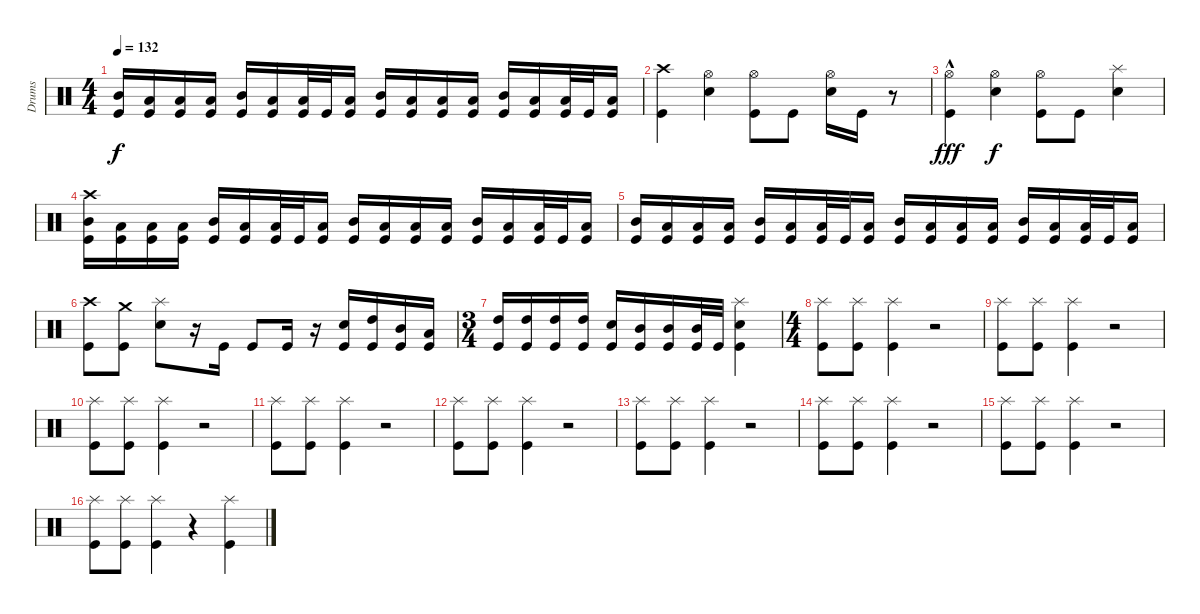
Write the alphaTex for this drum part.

\track ("Drums" "Drums") {instrument percussion}
\staff {score}
\articulation defaults
\ts (4 4)
\tempo 132
\clef neutral
\ks c
("Mid Tom (hit)" "Kick (hit)").16{dy f} ("Low Tom (hit)" "Kick (hit)").16 ("Low Tom (hit)" "Kick (hit)").16 ("Low Tom (hit)" "Kick (hit)").16 ("Mid Tom (hit)" "Kick (hit)").16 ("Low Tom (hit)" "Kick (hit)").16 ("Low Tom (hit)" "Kick (hit)").32 "Kick (hit)".32 ("Low Tom (hit)" "Kick (hit)").16 ("Mid Tom (hit)" "Kick (hit)").16 ("Low Tom (hit)" "Kick (hit)").16 ("Low Tom (hit)" "Kick (hit)").16 ("Low Tom (hit)" "Kick (hit)").16 ("Mid Tom (hit)" "Kick (hit)").16 ("Low Tom (hit)" "Kick (hit)").16 ("Low Tom (hit)" "Kick (hit)").32 "Kick (hit)".32 ("Low Tom (hit)" "Kick (hit)").16 |
("Crash high (hit)" "Kick (hit)").4 ("Hi-Hat (open)" "Snare (hit) 2").4 ("Hi-Hat (open)" "Kick (hit)").8 "Kick (hit)".8 ("Hi-Hat (open)" "Snare (hit) 2").16 "Kick (hit)".16 r.8 |
("Hi-Hat (open)"{hac} "Kick (hit)").4{dy fff} ("Hi-Hat (open)" "Snare (hit) 2").4{dy f} ("Hi-Hat (open)" "Kick (hit)").8 "Kick (hit)".8 ("Splash (hit)" "Snare (hit) 2").4 |
("Crash high (hit)" "Mid Tom (hit)" "Kick (hit)").16 ("Low Tom (hit)" "Kick (hit)").16 ("Low Tom (hit)" "Kick (hit)").16 ("Low Tom (hit)" "Kick (hit)").16 ("Mid Tom (hit)" "Kick (hit)").16 ("Low Tom (hit)" "Kick (hit)").16 ("Low Tom (hit)" "Kick (hit)").32 "Kick (hit)".32 ("Low Tom (hit)" "Kick (hit)").16 ("Mid Tom (hit)" "Kick (hit)").16 ("Low Tom (hit)" "Kick (hit)").16 ("Low Tom (hit)" "Kick (hit)").16 ("Low Tom (hit)" "Kick (hit)").16 ("Mid Tom (hit)" "Kick (hit)").16 ("Low Tom (hit)" "Kick (hit)").16 ("Low Tom (hit)" "Kick (hit)").32 "Kick (hit)".32 ("Low Tom (hit)" "Kick (hit)").16 |
("Mid Tom (hit)" "Kick (hit)").16 ("Low Tom (hit)" "Kick (hit)").16 ("Low Tom (hit)" "Kick (hit)").16 ("Low Tom (hit)" "Kick (hit)").16 ("Mid Tom (hit)" "Kick (hit)").16 ("Low Tom (hit)" "Kick (hit)").16 ("Low Tom (hit)" "Kick (hit)").32 "Kick (hit)".32 ("Low Tom (hit)" "Kick (hit)").16 ("Mid Tom (hit)" "Kick (hit)").16 ("Low Tom (hit)" "Kick (hit)").16 ("Low Tom (hit)" "Kick (hit)").16 ("Low Tom (hit)" "Kick (hit)").16 ("Mid Tom (hit)" "Kick (hit)").16 ("Low Tom (hit)" "Kick (hit)").16 ("Low Tom (hit)" "Kick (hit)").32 "Kick (hit)".32 ("Low Tom (hit)" "Kick (hit)").16 |
("Crash high (hit)" "Kick (hit)").8 ("Crash medium (hit)" "Kick (hit)").8 ("Splash (hit)" "Snare (hit) 2").8 r.16 "Kick (hit)".16 "Kick (hit)".8 "Kick (hit)".16 r.16 ("Snare (hit) 2" "Kick (hit)").16 ("High Tom (hit)" "Kick (hit)").16 ("Mid Tom (hit)" "Kick (hit)").16 ("Low Tom (hit)" "Kick (hit)").16 |
\ts (3 4)
("High Tom (hit)" "Kick (hit)").16 ("High Tom (hit)" "Kick (hit)").16 ("High Tom (hit)" "Kick (hit)").16 ("High Tom (hit)" "Kick (hit)").16 ("Snare (hit) 2" "Kick (hit)").16 ("Mid Tom (hit)" "Kick (hit)").16 ("Mid Tom (hit)" "Kick (hit)").16 ("Mid Tom (hit)" "Kick (hit)").32 "Kick (hit)".32 ("Splash (hit)" "Snare (hit) 2" "Kick (hit)").4 |
\ts (4 4)
("Splash (hit)" "Kick (hit)").8 ("Splash (hit)" "Kick (hit)").8 ("Splash (hit)" "Kick (hit)").4 r.2 |
("Splash (hit)" "Kick (hit)").8 ("Splash (hit)" "Kick (hit)").8 ("Splash (hit)" "Kick (hit)").4 r.2 |
("Splash (hit)" "Kick (hit)").8 ("Splash (hit)" "Kick (hit)").8 ("Splash (hit)" "Kick (hit)").4 r.2 |
("Splash (hit)" "Kick (hit)").8 ("Splash (hit)" "Kick (hit)").8 ("Splash (hit)" "Kick (hit)").4 r.2 |
("Splash (hit)" "Kick (hit)").8 ("Splash (hit)" "Kick (hit)").8 ("Splash (hit)" "Kick (hit)").4 r.2 |
("Splash (hit)" "Kick (hit)").8 ("Splash (hit)" "Kick (hit)").8 ("Splash (hit)" "Kick (hit)").4 r.2 |
("Splash (hit)" "Kick (hit)").8 ("Splash (hit)" "Kick (hit)").8 ("Splash (hit)" "Kick (hit)").4 r.2 |
("Splash (hit)" "Kick (hit)").8 ("Splash (hit)" "Kick (hit)").8 ("Splash (hit)" "Kick (hit)").4 r.2 |
("Splash (hit)" "Kick (hit)").8 ("Splash (hit)" "Kick (hit)").8 ("Splash (hit)" "Kick (hit)").4 r.4 ("Splash (hit)" "Kick (hit)").4
